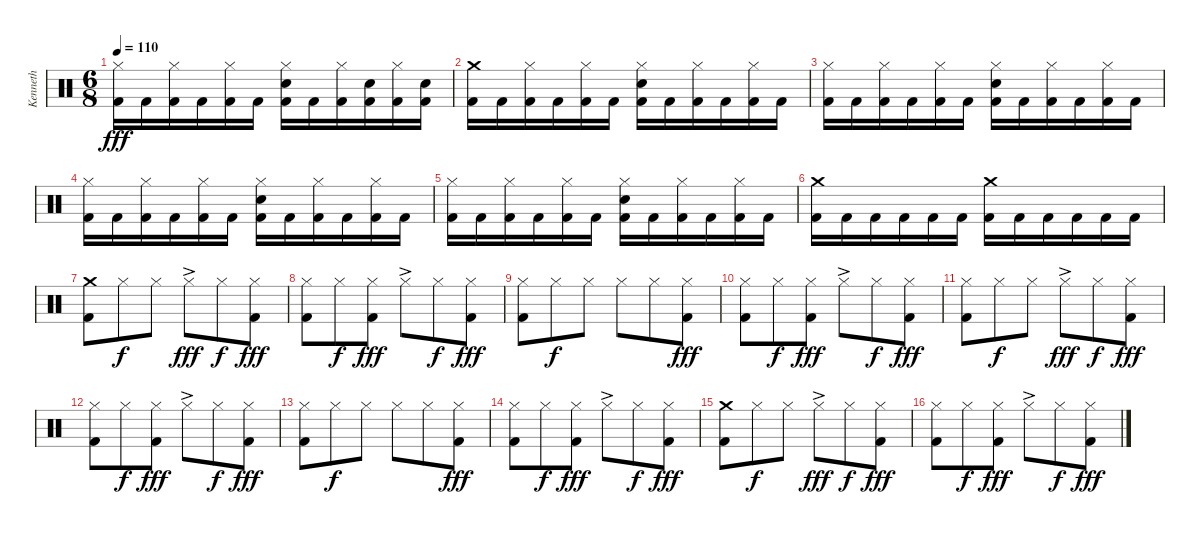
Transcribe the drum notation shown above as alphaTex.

\track ("Kenneth" "Kenneth") {instrument percussion}
\staff {score}
\articulation defaults
\ts (6 8)
\tempo 110
\clef neutral
\ks c
("Hi-Hat (closed)" "Kick (hit) 2").16{dy fff} "Kick (hit) 2".16 ("Hi-Hat (closed)" "Kick (hit) 2").16 "Kick (hit) 2".16 ("Hi-Hat (closed)" "Kick (hit) 2").16 "Kick (hit) 2".16 ("Hi-Hat (closed)" "Snare (hit) 2" "Kick (hit) 2").16 "Kick (hit) 2".16 ("Hi-Hat (closed)" "Kick (hit) 2").16 ("Snare (hit) 2" "Kick (hit) 2").16 ("Hi-Hat (closed)" "Kick (hit) 2").16 ("Snare (hit) 2" "Kick (hit) 2").16 |
("Crash medium (hit)" "Kick (hit) 2").16 "Kick (hit) 2".16 ("Hi-Hat (closed)" "Kick (hit) 2").16 "Kick (hit) 2".16 ("Hi-Hat (closed)" "Kick (hit) 2").16 "Kick (hit) 2".16 ("Hi-Hat (closed)" "Snare (hit) 2" "Kick (hit) 2").16 "Kick (hit) 2".16 ("Hi-Hat (closed)" "Kick (hit) 2").16 "Kick (hit) 2".16 ("Hi-Hat (closed)" "Kick (hit) 2").16 "Kick (hit) 2".16 |
("Hi-Hat (closed)" "Kick (hit) 2").16 "Kick (hit) 2".16 ("Hi-Hat (closed)" "Kick (hit) 2").16 "Kick (hit) 2".16 ("Hi-Hat (closed)" "Kick (hit) 2").16 "Kick (hit) 2".16 ("Hi-Hat (closed)" "Snare (hit) 2" "Kick (hit) 2").16 "Kick (hit) 2".16 ("Hi-Hat (closed)" "Kick (hit) 2").16 "Kick (hit) 2".16 ("Hi-Hat (closed)" "Kick (hit) 2").16 "Kick (hit) 2".16 |
("Hi-Hat (closed)" "Kick (hit) 2").16 "Kick (hit) 2".16 ("Hi-Hat (closed)" "Kick (hit) 2").16 "Kick (hit) 2".16 ("Hi-Hat (closed)" "Kick (hit) 2").16 "Kick (hit) 2".16 ("Hi-Hat (closed)" "Snare (hit) 2" "Kick (hit) 2").16 "Kick (hit) 2".16 ("Hi-Hat (closed)" "Kick (hit) 2").16 "Kick (hit) 2".16 ("Hi-Hat (closed)" "Kick (hit) 2").16 "Kick (hit) 2".16 |
("Hi-Hat (closed)" "Kick (hit) 2").16 "Kick (hit) 2".16 ("Hi-Hat (closed)" "Kick (hit) 2").16 "Kick (hit) 2".16 ("Hi-Hat (closed)" "Kick (hit) 2").16 "Kick (hit) 2".16 ("Hi-Hat (closed)" "Snare (hit) 2" "Kick (hit) 2").16 "Kick (hit) 2".16 ("Hi-Hat (closed)" "Kick (hit) 2").16 "Kick (hit) 2".16 ("Hi-Hat (closed)" "Kick (hit) 2").16 "Kick (hit) 2".16 |
("Crash medium (hit)" "Kick (hit) 2").16 "Kick (hit) 2".16 "Kick (hit) 2".16 "Kick (hit) 2".16 "Kick (hit) 2".16 "Kick (hit) 2".16 ("Crash medium (hit)" "Kick (hit) 2").16 "Kick (hit) 2".16 "Kick (hit) 2".16 "Kick (hit) 2".16 "Kick (hit) 2".16 "Kick (hit) 2".16 |
("Crash medium (hit)" "Kick (hit) 2").8 "Hi-Hat (closed)".8{dy f} "Hi-Hat (closed)".8 "Hi-Hat (closed)"{ac}.8{dy fff} "Hi-Hat (closed)".8{dy f} ("Hi-Hat (closed)" "Kick (hit) 2").8{dy fff} |
("Hi-Hat (closed)" "Kick (hit) 2").8 "Hi-Hat (closed)".8{dy f} ("Hi-Hat (closed)" "Kick (hit) 2").8{dy fff} "Hi-Hat (closed)"{ac}.8 "Hi-Hat (closed)".8{dy f} ("Hi-Hat (closed)" "Kick (hit) 2").8{dy fff} |
("Hi-Hat (closed)" "Kick (hit) 2").8 "Hi-Hat (closed)".8{dy f} "Hi-Hat (closed)".8 "Hi-Hat (closed)".8 "Hi-Hat (closed)".8 ("Hi-Hat (closed)" "Kick (hit) 2").8{dy fff} |
("Hi-Hat (closed)" "Kick (hit) 2").8 "Hi-Hat (closed)".8{dy f} ("Hi-Hat (closed)" "Kick (hit) 2").8{dy fff} "Hi-Hat (closed)"{ac}.8 "Hi-Hat (closed)".8{dy f} ("Hi-Hat (closed)" "Kick (hit) 2").8{dy fff} |
("Hi-Hat (closed)" "Kick (hit) 2").8 "Hi-Hat (closed)".8{dy f} "Hi-Hat (closed)".8 "Hi-Hat (closed)"{ac}.8{dy fff} "Hi-Hat (closed)".8{dy f} ("Hi-Hat (closed)" "Kick (hit) 2").8{dy fff} |
("Hi-Hat (closed)" "Kick (hit) 2").8 "Hi-Hat (closed)".8{dy f} ("Hi-Hat (closed)" "Kick (hit) 2").8{dy fff} "Hi-Hat (closed)"{ac}.8 "Hi-Hat (closed)".8{dy f} ("Hi-Hat (closed)" "Kick (hit) 2").8{dy fff} |
("Hi-Hat (closed)" "Kick (hit) 2").8 "Hi-Hat (closed)".8{dy f} "Hi-Hat (closed)".8 "Hi-Hat (closed)".8 "Hi-Hat (closed)".8 ("Hi-Hat (closed)" "Kick (hit) 2").8{dy fff} |
("Hi-Hat (closed)" "Kick (hit) 2").8 "Hi-Hat (closed)".8{dy f} ("Hi-Hat (closed)" "Kick (hit) 2").8{dy fff} "Hi-Hat (closed)"{ac}.8 "Hi-Hat (closed)".8{dy f} ("Hi-Hat (closed)" "Kick (hit) 2").8{dy fff} |
("Crash medium (hit)" "Kick (hit) 2").8 "Hi-Hat (closed)".8{dy f} "Hi-Hat (closed)".8 "Hi-Hat (closed)"{ac}.8{dy fff} "Hi-Hat (closed)".8{dy f} ("Hi-Hat (closed)" "Kick (hit) 2").8{dy fff} |
("Hi-Hat (closed)" "Kick (hit) 2").8 "Hi-Hat (closed)".8{dy f} ("Hi-Hat (closed)" "Kick (hit) 2").8{dy fff} "Hi-Hat (closed)"{ac}.8 "Hi-Hat (closed)".8{dy f} ("Hi-Hat (closed)" "Kick (hit) 2").8{dy fff}
